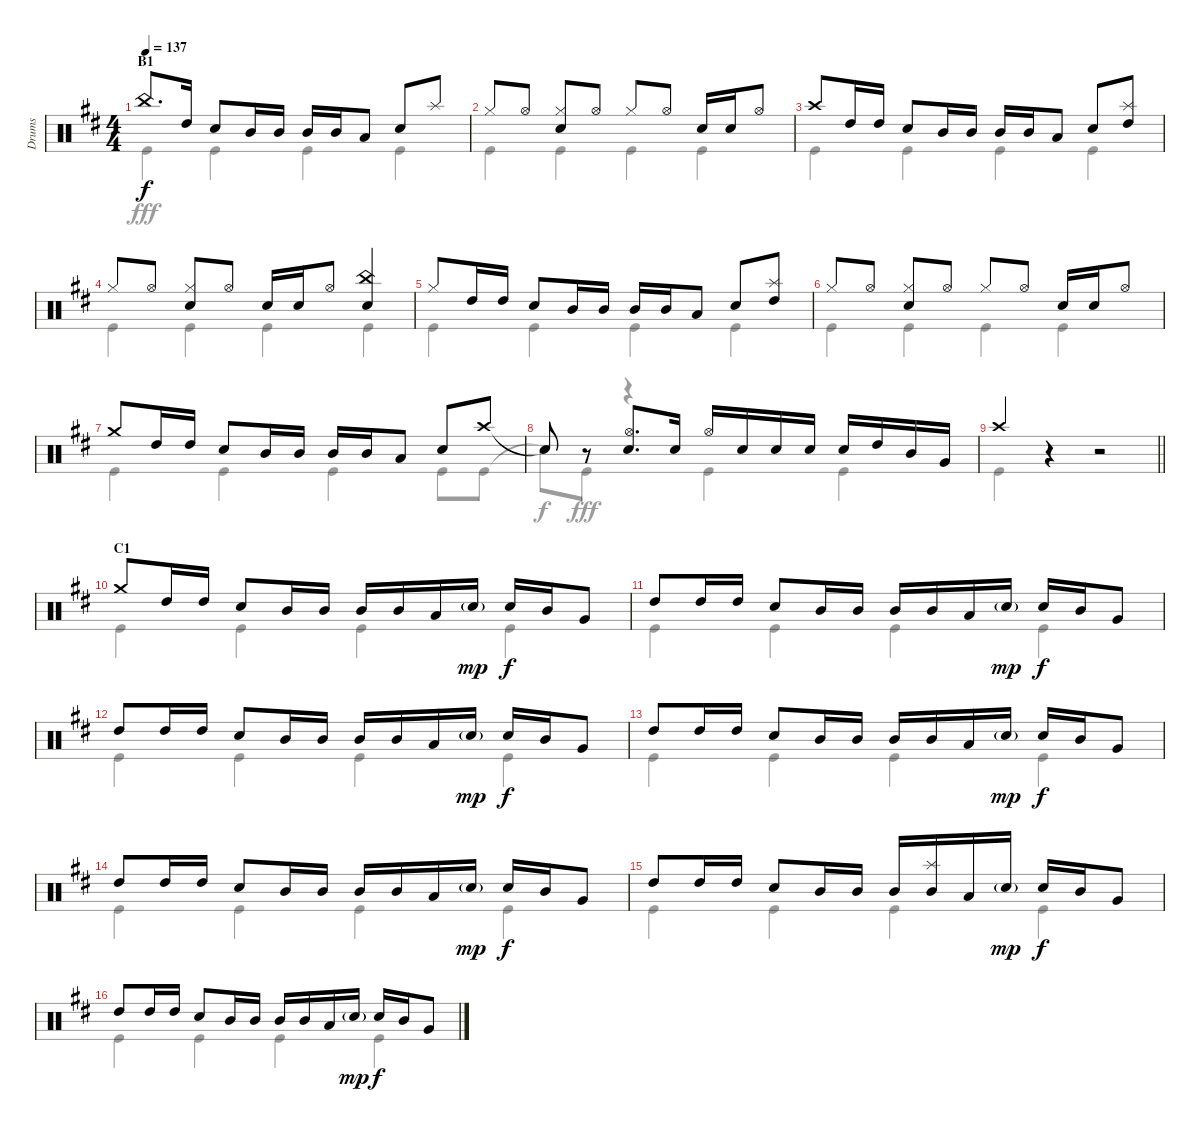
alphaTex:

\track ("Drums" "Drums") {instrument percussion}
\staff {score}
\articulation defaults
\voice
\ts (4 4)
\section ("" "B1")
\tempo 137
\clef neutral
\ks d "China (hit)".8{d dy f} "High Tom (hit)".16 "Snare (hit) 2".8 "Mid Tom (hit)".16 "Mid Tom (hit)".16 "Mid Tom (hit)".16 "Mid Tom (hit)".16 "Low Tom (hit)".8 "Snare (hit) 2".8 "Splash (hit)".8
|
"Hi-Hat (closed)".8 "Hi-Hat (open)".8 ("Hi-Hat (closed)" "Snare (hit) 2").8 "Hi-Hat (open)".8 "Hi-Hat (closed)".8 "Hi-Hat (open)".8 "Snare (hit) 2".16 "Snare (hit) 2".16 "Hi-Hat (open)".8 |
"Crash high (hit)".8 "High Tom (hit)".16 "High Tom (hit)".16 "Snare (hit) 2".8 "Mid Tom (hit)".16 "Mid Tom (hit)".16 "Mid Tom (hit)".16 "Mid Tom (hit)".16 "Low Tom (hit)".8 "Snare (hit) 2".8 ("Splash (hit)" "High Tom (hit)").8 |
"Hi-Hat (closed)".8 "Hi-Hat (open)".8 ("Hi-Hat (closed)" "Snare (hit) 2").8 "Hi-Hat (open)".8 "Snare (hit) 2".16 "Snare (hit) 2".16 "Hi-Hat (open)".8 ("China (hit)" "Snare (hit) 2").4 |
"Hi-Hat (closed)".8 "High Tom (hit)".16 "High Tom (hit)".16 "Snare (hit) 2".8 "Mid Tom (hit)".16 "Mid Tom (hit)".16 "Mid Tom (hit)".16 "Mid Tom (hit)".16 "Low Tom (hit)".8 "Snare (hit) 2".8 ("Splash (hit)" "High Tom (hit)").8 |
"Hi-Hat (closed)".8 "Hi-Hat (open)".8 ("Hi-Hat (closed)" "Snare (hit) 2").8 "Hi-Hat (open)".8 "Hi-Hat (closed)".8 "Hi-Hat (open)".8 "Snare (hit) 2".16 "Snare (hit) 2".16 "Hi-Hat (open)".8 |
"Crash medium (hit)".8 "High Tom (hit)".16 "High Tom (hit)".16 "Snare (hit) 2".8 "Mid Tom (hit)".16 "Mid Tom (hit)".16 "Mid Tom (hit)".16 "Mid Tom (hit)".16 "Low Tom (hit)".8 "Snare (hit) 2".8 "Crash high (hit)".8 |
"Snare (hit)"{t}.8 r.8 ("Hi-Hat (open)" "Snare (hit) 2").8{d} "Snare (hit) 2".16 "Hi-Hat (open)".16 "Snare (hit) 2".16 "Snare (hit) 2".16 "Snare (hit) 2".16 "Snare (hit) 2".16 "High Tom (hit)".16 "Mid Tom (hit)".16 "Very Low Tom (hit)".16 |
\barLineRight lightlight "Crash high (hit)".4
r.4 r.2 |
\section ("" "C1")
"Crash medium (hit)".8 "High Tom (hit)".16 "High Tom (hit)".16 "Snare (hit) 2".8 "Mid Tom (hit)".16 "Mid Tom (hit)".16 "Mid Tom (hit)".16 "Mid Tom (hit)".16 "Low Tom (hit)".16 "Snare (hit) 2"{g}.16{dy mp} "Snare (hit) 2".16{dy f} "Mid Tom (hit)".16 "Very Low Tom (hit)".8 |
"High Tom (hit)".8 "High Tom (hit)".16 "High Tom (hit)".16 "Snare (hit) 2".8 "Mid Tom (hit)".16 "Mid Tom (hit)".16 "Mid Tom (hit)".16 "Mid Tom (hit)".16 "Low Tom (hit)".16 "Snare (hit) 2"{g}.16{dy mp} "Snare (hit) 2".16{dy f} "Mid Tom (hit)".16 "Very Low Tom (hit)".8 |
"High Tom (hit)".8 "High Tom (hit)".16 "High Tom (hit)".16 "Snare (hit) 2".8 "Mid Tom (hit)".16 "Mid Tom (hit)".16 "Mid Tom (hit)".16 "Mid Tom (hit)".16 "Low Tom (hit)".16 "Snare (hit) 2"{g}.16{dy mp} "Snare (hit) 2".16{dy f} "Mid Tom (hit)".16 "Very Low Tom (hit)".8 |
"High Tom (hit)".8 "High Tom (hit)".16 "High Tom (hit)".16 "Snare (hit) 2".8 "Mid Tom (hit)".16 "Mid Tom (hit)".16 "Mid Tom (hit)".16 "Mid Tom (hit)".16 "Low Tom (hit)".16 "Snare (hit) 2"{g}.16{dy mp} "Snare (hit) 2".16{dy f} "Mid Tom (hit)".16 "Very Low Tom (hit)".8 |
"High Tom (hit)".8 "High Tom (hit)".16 "High Tom (hit)".16 "Snare (hit) 2".8 "Mid Tom (hit)".16 "Mid Tom (hit)".16 "Mid Tom (hit)".16 "Mid Tom (hit)".16 "Low Tom (hit)".16 "Snare (hit) 2"{g}.16{dy mp} "Snare (hit) 2".16{dy f} "Mid Tom (hit)".16 "Very Low Tom (hit)".8 |
"High Tom (hit)".8 "High Tom (hit)".16 "High Tom (hit)".16 "Snare (hit) 2".8 "Mid Tom (hit)".16 "Mid Tom (hit)".16 "Mid Tom (hit)".16 ("Mid Tom (hit)" "Splash (hit)").16 "Low Tom (hit)".16 "Snare (hit) 2"{g}.16{dy mp} "Snare (hit) 2".16{dy f} "Mid Tom (hit)".16 "Very Low Tom (hit)".8 |
"High Tom (hit)".8 "High Tom (hit)".16 "High Tom (hit)".16 "Snare (hit) 2".8 "Mid Tom (hit)".16 "Mid Tom (hit)".16 "Mid Tom (hit)".16 "Mid Tom (hit)".16 "Low Tom (hit)".16 "Snare (hit) 2"{g}.16{dy mp} "Snare (hit) 2".16{dy f} "Mid Tom (hit)".16 "Very Low Tom (hit)".8
\voice
\clef neutral
\ottava regular
\simile none
\ks d "Kick (hit)".4{dy fff} "Kick (hit)".4 "Kick (hit)".4 "Kick (hit)".4
|
"Kick (hit)".4 "Kick (hit)".4 "Kick (hit)".4 "Kick (hit)".4 |
"Kick (hit)".4 "Kick (hit)".4 "Kick (hit)".4 "Kick (hit)".4 |
"Kick (hit)".4 "Kick (hit)".4 "Kick (hit)".4 "Kick (hit)".4 |
"Kick (hit)".4 "Kick (hit)".4 "Kick (hit)".4 "Kick (hit)".4 |
"Kick (hit)".4 "Kick (hit)".4 "Kick (hit)".4 "Kick (hit)".4 |
"Kick (hit)".4 "Kick (hit)".4 "Kick (hit)".4 "Kick (hit)".8 "Kick (hit)".8 |
"Snare (hit)"{t}.8{dy f} "Kick (hit)".8{dy fff} r.4 "Kick (hit)".4 "Kick (hit)".4 |
\barLineRight lightlight "Kick (hit)".4
r.4 r.2 |
"Kick (hit)".4 "Kick (hit)".4 "Kick (hit)".4 "Kick (hit)".4 |
"Kick (hit)".4 "Kick (hit)".4 "Kick (hit)".4 "Kick (hit)".4 |
"Kick (hit)".4 "Kick (hit)".4 "Kick (hit)".4 "Kick (hit)".4 |
"Kick (hit)".4 "Kick (hit)".4 "Kick (hit)".4 "Kick (hit)".4 |
"Kick (hit)".4 "Kick (hit)".4 "Kick (hit)".4 "Kick (hit)".4 |
"Kick (hit)".4 "Kick (hit)".4 "Kick (hit)".4 "Kick (hit)".4 |
"Kick (hit)".4 "Kick (hit)".4 "Kick (hit)".4 "Kick (hit)".4
